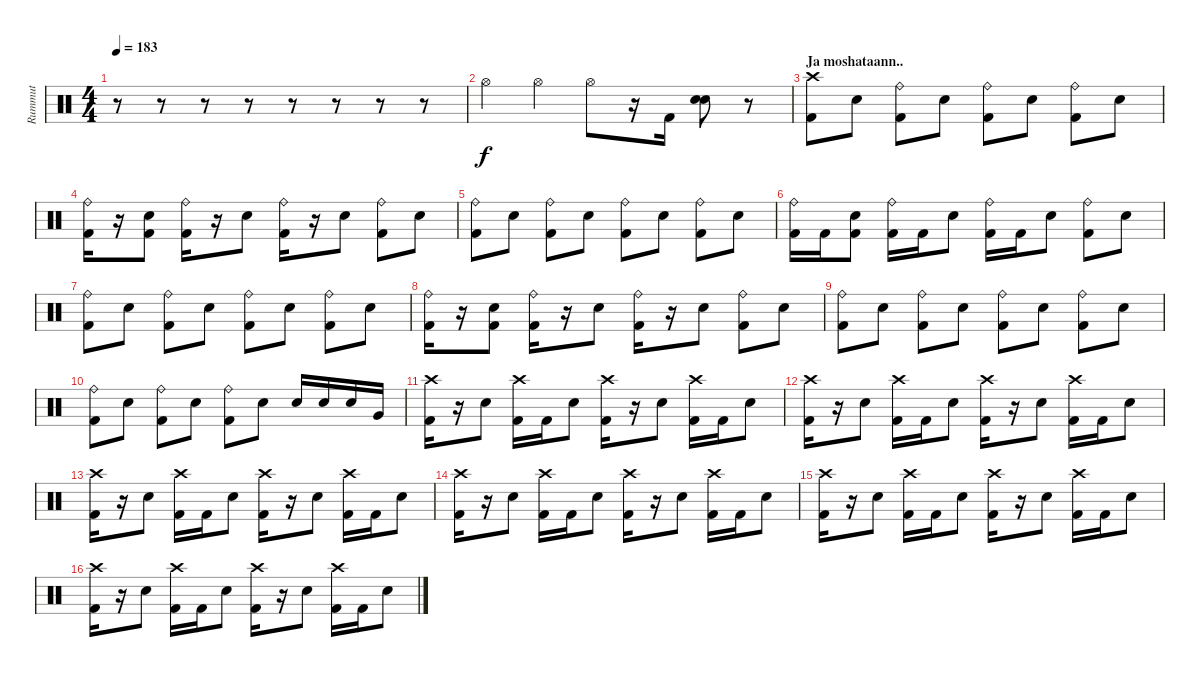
\track ("Rummut" "Rummut") {instrument percussion}
\staff {score}
\articulation defaults
\ts (4 4)
\tempo 183
\clef neutral
\ks c
r.8{dy f} r.8 r.8 r.8 r.8 r.8 r.8 r.8 |
"Hi-Hat (open)".4 "Hi-Hat (open)".4 "Hi-Hat (open)".8 r.16 "Kick (hit) 2".16 ("Electric Snare (hit)" "Electric Snare (hit)").8 r.8 |
\section ("" "Ja moshataann..")
("Crash high (hit)" "Kick (hit) 2").8 "Electric Snare (hit)".8 ("Ride (bell)" "Kick (hit) 2").8 "Electric Snare (hit)".8 ("Ride (bell)" "Kick (hit) 2").8 "Electric Snare (hit)".8 ("Ride (bell)" "Kick (hit) 2").8 "Electric Snare (hit)".8 |
("Ride (bell)" "Kick (hit) 2").16 r.16 ("Electric Snare (hit)" "Kick (hit) 2").8 ("Ride (bell)" "Kick (hit) 2").16 r.16 "Electric Snare (hit)".8 ("Ride (bell)" "Kick (hit) 2").16 r.16 "Electric Snare (hit)".8 ("Ride (bell)" "Kick (hit) 2").8 "Electric Snare (hit)".8 |
("Ride (bell)" "Kick (hit) 2").8 "Electric Snare (hit)".8 ("Ride (bell)" "Kick (hit) 2").8 "Electric Snare (hit)".8 ("Ride (bell)" "Kick (hit) 2").8 "Electric Snare (hit)".8 ("Ride (bell)" "Kick (hit) 2").8 "Electric Snare (hit)".8 |
("Ride (bell)" "Kick (hit) 2").16 "Kick (hit) 2".16 ("Electric Snare (hit)" "Kick (hit) 2").8 ("Ride (bell)" "Kick (hit) 2").16 "Kick (hit) 2".16 "Electric Snare (hit)".8 ("Ride (bell)" "Kick (hit) 2").16 "Kick (hit) 2".16 "Electric Snare (hit)".8 ("Ride (bell)" "Kick (hit) 2").8 "Electric Snare (hit)".8 |
("Ride (bell)" "Kick (hit) 2").8 "Electric Snare (hit)".8 ("Ride (bell)" "Kick (hit) 2").8 "Electric Snare (hit)".8 ("Ride (bell)" "Kick (hit) 2").8 "Electric Snare (hit)".8 ("Ride (bell)" "Kick (hit) 2").8 "Electric Snare (hit)".8 |
("Ride (bell)" "Kick (hit) 2").16 r.16 ("Electric Snare (hit)" "Kick (hit) 2").8 ("Ride (bell)" "Kick (hit) 2").16 r.16 "Electric Snare (hit)".8 ("Ride (bell)" "Kick (hit) 2").16 r.16 "Electric Snare (hit)".8 ("Ride (bell)" "Kick (hit) 2").8 "Electric Snare (hit)".8 |
("Ride (bell)" "Kick (hit) 2").8 "Electric Snare (hit)".8 ("Ride (bell)" "Kick (hit) 2").8 "Electric Snare (hit)".8 ("Ride (bell)" "Kick (hit) 2").8 "Electric Snare (hit)".8 ("Ride (bell)" "Kick (hit) 2").8 "Electric Snare (hit)".8 |
("Ride (bell)" "Kick (hit) 2").8 "Electric Snare (hit)".8 ("Ride (bell)" "Kick (hit) 2").8 "Electric Snare (hit)".8 ("Ride (bell)" "Kick (hit) 2").8 "Electric Snare (hit)".8 "Electric Snare (hit)".16 "Electric Snare (hit)".16 "Electric Snare (hit)".16 "Very Low Tom (hit)".16 |
("Crash high (hit)" "Kick (hit) 2").16 r.16 "Electric Snare (hit)".8 ("Crash high (hit)" "Kick (hit) 2").16 "Kick (hit) 2".16 "Electric Snare (hit)".8 ("Crash high (hit)" "Kick (hit) 2").16 r.16 "Electric Snare (hit)".8 ("Crash high (hit)" "Kick (hit) 2").16 "Kick (hit) 2".16 "Electric Snare (hit)".8 |
("Crash high (hit)" "Kick (hit) 2").16 r.16 "Electric Snare (hit)".8 ("Crash high (hit)" "Kick (hit) 2").16 "Kick (hit) 2".16 "Electric Snare (hit)".8 ("Crash high (hit)" "Kick (hit) 2").16 r.16 "Electric Snare (hit)".8 ("Crash high (hit)" "Kick (hit) 2").16 "Kick (hit) 2".16 "Electric Snare (hit)".8 |
("Crash high (hit)" "Kick (hit) 2").16 r.16 "Electric Snare (hit)".8 ("Crash high (hit)" "Kick (hit) 2").16 "Kick (hit) 2".16 "Electric Snare (hit)".8 ("Crash high (hit)" "Kick (hit) 2").16 r.16 "Electric Snare (hit)".8 ("Crash high (hit)" "Kick (hit) 2").16 "Kick (hit) 2".16 "Electric Snare (hit)".8 |
("Crash high (hit)" "Kick (hit) 2").16 r.16 "Electric Snare (hit)".8 ("Crash high (hit)" "Kick (hit) 2").16 "Kick (hit) 2".16 "Electric Snare (hit)".8 ("Crash high (hit)" "Kick (hit) 2").16 r.16 "Electric Snare (hit)".8 ("Crash high (hit)" "Kick (hit) 2").16 "Kick (hit) 2".16 "Electric Snare (hit)".8 |
("Crash high (hit)" "Kick (hit) 2").16 r.16 "Electric Snare (hit)".8 ("Crash high (hit)" "Kick (hit) 2").16 "Kick (hit) 2".16 "Electric Snare (hit)".8 ("Crash high (hit)" "Kick (hit) 2").16 r.16 "Electric Snare (hit)".8 ("Crash high (hit)" "Kick (hit) 2").16 "Kick (hit) 2".16 "Electric Snare (hit)".8 |
("Crash high (hit)" "Kick (hit) 2").16 r.16 "Electric Snare (hit)".8 ("Crash high (hit)" "Kick (hit) 2").16 "Kick (hit) 2".16 "Electric Snare (hit)".8 ("Crash high (hit)" "Kick (hit) 2").16 r.16 "Electric Snare (hit)".8 ("Crash high (hit)" "Kick (hit) 2").16 "Kick (hit) 2".16 "Electric Snare (hit)".8
